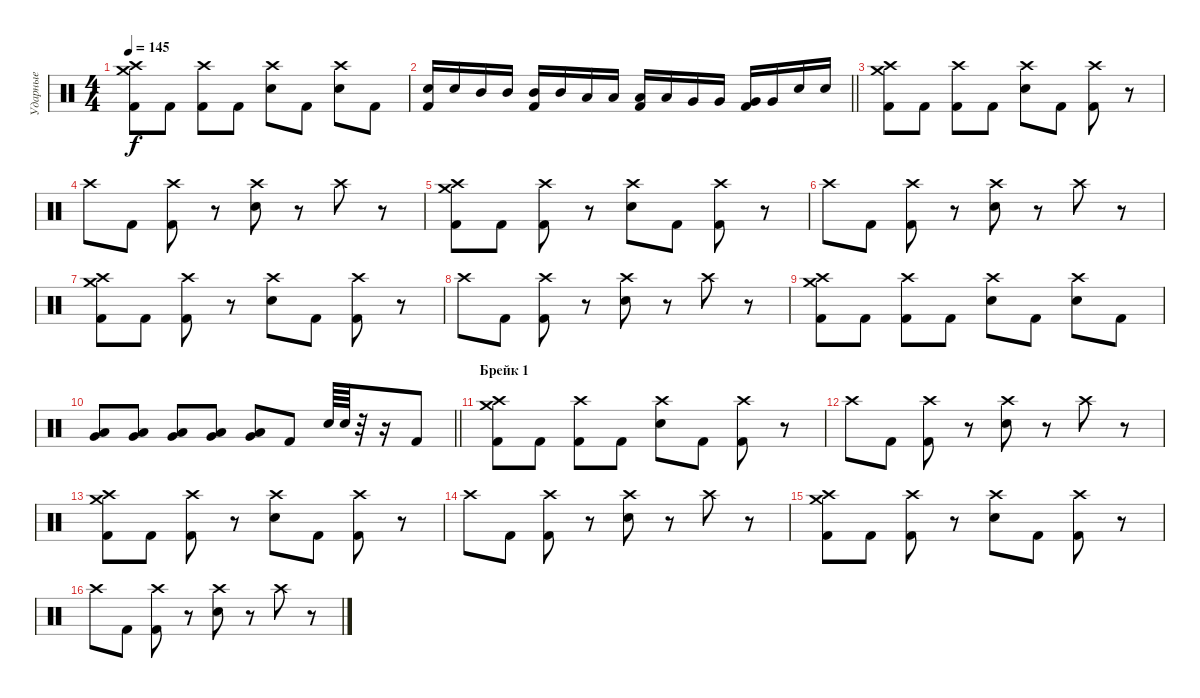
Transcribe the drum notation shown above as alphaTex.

\track ("Ударные" "Ударные") {instrument percussion}
\staff {score}
\articulation defaults
\ts (4 4)
\tempo 145
\clef neutral
\ks c
("Crash medium (hit)" "Crash high (hit)" "Kick (hit) 2").8{dy f} "Kick (hit) 2".8 ("Crash high (hit)" "Kick (hit) 2").8 "Kick (hit) 2".8 ("Crash high (hit)" "Electric Snare (hit)").8 "Kick (hit) 2".8 ("Crash high (hit)" "Electric Snare (hit)").8 "Kick (hit) 2".8 |
\barLineRight lightlight
("Electric Snare (hit)" "Kick (hit) 2").16 "Electric Snare (hit)".16 "Mid Tom (hit)".16 "Mid Tom (hit)".16 ("Mid Tom (hit)" "Kick (hit) 2").16 "Mid Tom (hit)".16 "Low Tom (hit)".16 "Low Tom (hit)".16 ("Low Tom (hit)" "Kick (hit) 2").16 "Low Tom (hit)".16 "Very Low Tom (hit)".16 "Very Low Tom (hit)".16 ("Very Low Tom (hit)" "Kick (hit) 2").16 "Very Low Tom (hit)".16 "Electric Snare (hit)".16 "Electric Snare (hit)".16 |
("Crash medium (hit)" "Crash high (hit)" "Kick (hit) 2").8 "Kick (hit) 2".8 ("Crash high (hit)" "Kick (hit) 2").8 "Kick (hit) 2".8 ("Crash high (hit)" "Electric Snare (hit)").8 "Kick (hit) 2".8 ("Crash high (hit)" "Kick (hit) 2").8 r.8 |
"Crash high (hit)".8 "Kick (hit) 2".8 ("Crash high (hit)" "Kick (hit) 2").8 r.8 ("Crash high (hit)" "Electric Snare (hit)").8 r.8 "Crash high (hit)".8 r.8 |
("Crash medium (hit)" "Crash high (hit)" "Kick (hit) 2").8 "Kick (hit) 2".8 ("Crash high (hit)" "Kick (hit) 2").8 r.8 ("Crash high (hit)" "Electric Snare (hit)").8 "Kick (hit) 2".8 ("Crash high (hit)" "Kick (hit) 2").8 r.8 |
"Crash high (hit)".8 "Kick (hit) 2".8 ("Crash high (hit)" "Kick (hit) 2").8 r.8 ("Crash high (hit)" "Electric Snare (hit)").8 r.8 "Crash high (hit)".8 r.8 |
("Crash medium (hit)" "Crash high (hit)" "Kick (hit) 2").8 "Kick (hit) 2".8 ("Crash high (hit)" "Kick (hit) 2").8 r.8 ("Crash high (hit)" "Electric Snare (hit)").8 "Kick (hit) 2".8 ("Crash high (hit)" "Kick (hit) 2").8 r.8 |
"Crash high (hit)".8 "Kick (hit) 2".8 ("Crash high (hit)" "Kick (hit) 2").8 r.8 ("Crash high (hit)" "Electric Snare (hit)").8 r.8 "Crash high (hit)".8 r.8 |
("Crash medium (hit)" "Crash high (hit)" "Kick (hit) 2").8 "Kick (hit) 2".8 ("Crash high (hit)" "Kick (hit) 2").8 "Kick (hit) 2".8 ("Crash high (hit)" "Electric Snare (hit)").8 "Kick (hit) 2".8 ("Crash high (hit)" "Electric Snare (hit)").8 "Kick (hit) 2".8 |
\barLineRight lightlight
("Very Low Tom (hit)" "Low Floor Tom (hit)").8 ("Very Low Tom (hit)" "Low Floor Tom (hit)").8 ("Very Low Tom (hit)" "Low Floor Tom (hit)").8 ("Very Low Tom (hit)" "Low Floor Tom (hit)").8 ("Very Low Tom (hit)" "Low Floor Tom (hit)").8 "Kick (hit) 2".8 "Electric Snare (hit)".64 "Electric Snare (hit)".64 r.32 r.16 "Kick (hit) 2".8 |
\section ("" "Брейк 1")
("Crash medium (hit)" "Crash high (hit)" "Kick (hit) 2").8 "Kick (hit) 2".8 ("Crash high (hit)" "Kick (hit) 2").8 "Kick (hit) 2".8 ("Crash high (hit)" "Electric Snare (hit)").8 "Kick (hit) 2".8 ("Crash high (hit)" "Kick (hit) 2").8 r.8 |
"Crash high (hit)".8 "Kick (hit) 2".8 ("Crash high (hit)" "Kick (hit) 2").8 r.8 ("Crash high (hit)" "Electric Snare (hit)").8 r.8 "Crash high (hit)".8 r.8 |
("Crash medium (hit)" "Crash high (hit)" "Kick (hit) 2").8 "Kick (hit) 2".8 ("Crash high (hit)" "Kick (hit) 2").8 r.8 ("Crash high (hit)" "Electric Snare (hit)").8 "Kick (hit) 2".8 ("Crash high (hit)" "Kick (hit) 2").8 r.8 |
"Crash high (hit)".8 "Kick (hit) 2".8 ("Crash high (hit)" "Kick (hit) 2").8 r.8 ("Crash high (hit)" "Electric Snare (hit)").8 r.8 "Crash high (hit)".8 r.8 |
("Crash medium (hit)" "Crash high (hit)" "Kick (hit) 2").8 "Kick (hit) 2".8 ("Crash high (hit)" "Kick (hit) 2").8 r.8 ("Crash high (hit)" "Electric Snare (hit)").8 "Kick (hit) 2".8 ("Crash high (hit)" "Kick (hit) 2").8 r.8 |
"Crash high (hit)".8 "Kick (hit) 2".8 ("Crash high (hit)" "Kick (hit) 2").8 r.8 ("Crash high (hit)" "Electric Snare (hit)").8 r.8 "Crash high (hit)".8 r.8
